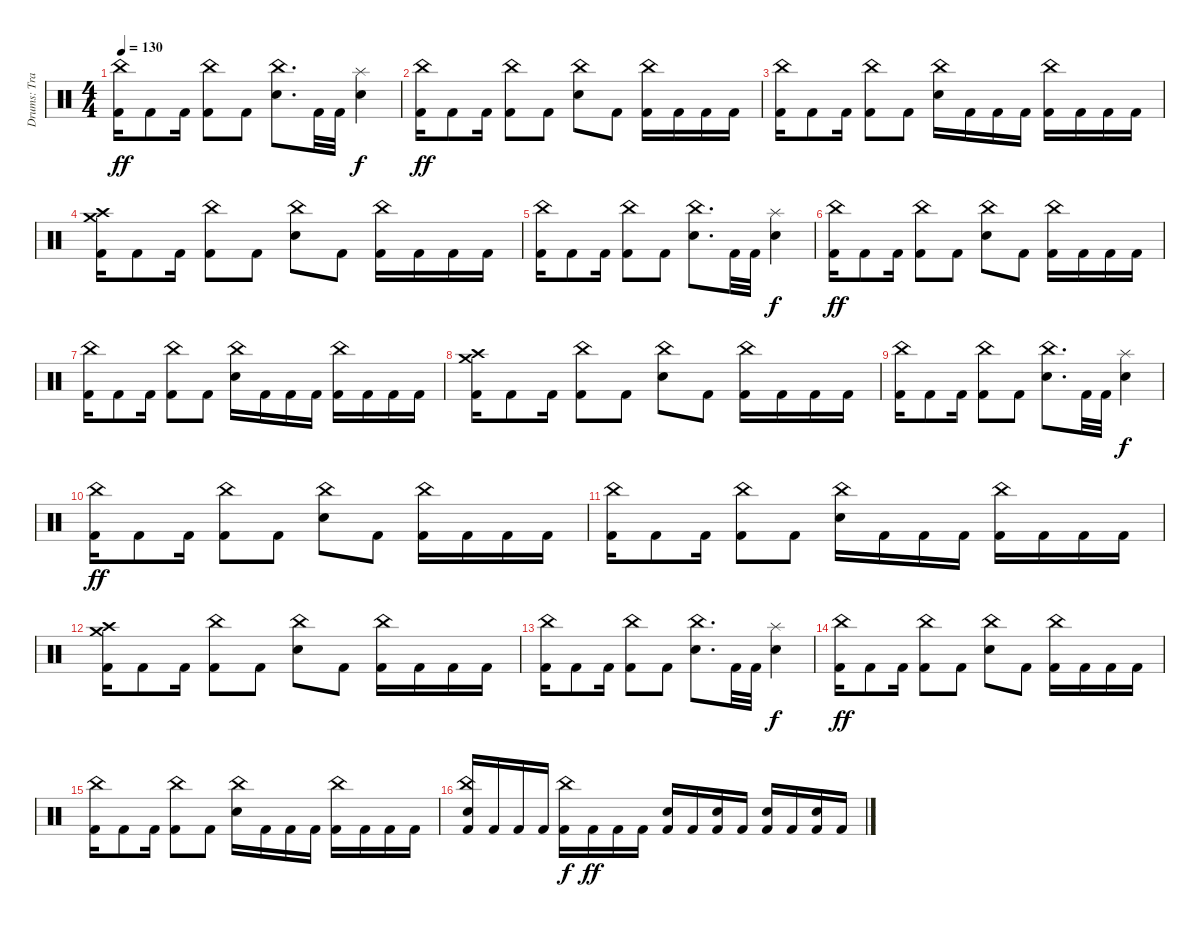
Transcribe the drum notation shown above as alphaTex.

\track ("Drums: Travis Clarke" "Drums: Tra") {instrument percussion}
\staff {score}
\articulation defaults
\ts (4 4)
\tempo 130
\clef neutral
\ks c
("Kick (hit) 2" "China (hit)").16{dy ff} "Kick (hit) 2".8 "Kick (hit) 2".16 ("Kick (hit) 2" "China (hit)").8 "Kick (hit) 2".8 ("Snare (hit) 2" "China (hit)").8{d} "Kick (hit) 2".32 "Kick (hit) 2".32 ("Snare (hit) 2" "Splash (hit)").4{dy f} |
("Kick (hit) 2" "China (hit)").16{dy ff} "Kick (hit) 2".8 "Kick (hit) 2".16 ("Kick (hit) 2" "China (hit)").8 "Kick (hit) 2".8 ("Snare (hit) 2" "China (hit)").8 "Kick (hit) 2".8 ("Kick (hit) 2" "China (hit)").16 "Kick (hit) 2".16 "Kick (hit) 2".16 "Kick (hit) 2".16 |
("Kick (hit) 2" "China (hit)").16 "Kick (hit) 2".8 "Kick (hit) 2".16 ("Kick (hit) 2" "China (hit)").8 "Kick (hit) 2".8 ("Snare (hit) 2" "China (hit)").16 "Kick (hit) 2".16 "Kick (hit) 2".16 "Kick (hit) 2".16 ("Kick (hit) 2" "China (hit)").16 "Kick (hit) 2".16 "Kick (hit) 2".16 "Kick (hit) 2".16 |
("Kick (hit) 2" "Crash high (hit)" "Crash medium (hit)").16 "Kick (hit) 2".8 "Kick (hit) 2".16 ("Kick (hit) 2" "China (hit)").8 "Kick (hit) 2".8 ("Snare (hit) 2" "China (hit)").8 "Kick (hit) 2".8 ("Kick (hit) 2" "China (hit)").16 "Kick (hit) 2".16 "Kick (hit) 2".16 "Kick (hit) 2".16 |
("Kick (hit) 2" "China (hit)").16 "Kick (hit) 2".8 "Kick (hit) 2".16 ("Kick (hit) 2" "China (hit)").8 "Kick (hit) 2".8 ("Snare (hit) 2" "China (hit)").8{d} "Kick (hit) 2".32 "Kick (hit) 2".32 ("Snare (hit) 2" "Splash (hit)").4{dy f} |
("Kick (hit) 2" "China (hit)").16{dy ff} "Kick (hit) 2".8 "Kick (hit) 2".16 ("Kick (hit) 2" "China (hit)").8 "Kick (hit) 2".8 ("Snare (hit) 2" "China (hit)").8 "Kick (hit) 2".8 ("Kick (hit) 2" "China (hit)").16 "Kick (hit) 2".16 "Kick (hit) 2".16 "Kick (hit) 2".16 |
("Kick (hit) 2" "China (hit)").16 "Kick (hit) 2".8 "Kick (hit) 2".16 ("Kick (hit) 2" "China (hit)").8 "Kick (hit) 2".8 ("Snare (hit) 2" "China (hit)").16 "Kick (hit) 2".16 "Kick (hit) 2".16 "Kick (hit) 2".16 ("Kick (hit) 2" "China (hit)").16 "Kick (hit) 2".16 "Kick (hit) 2".16 "Kick (hit) 2".16 |
("Kick (hit) 2" "Crash high (hit)" "Crash medium (hit)").16 "Kick (hit) 2".8 "Kick (hit) 2".16 ("Kick (hit) 2" "China (hit)").8 "Kick (hit) 2".8 ("Snare (hit) 2" "China (hit)").8 "Kick (hit) 2".8 ("Kick (hit) 2" "China (hit)").16 "Kick (hit) 2".16 "Kick (hit) 2".16 "Kick (hit) 2".16 |
("Kick (hit) 2" "China (hit)").16 "Kick (hit) 2".8 "Kick (hit) 2".16 ("Kick (hit) 2" "China (hit)").8 "Kick (hit) 2".8 ("Snare (hit) 2" "China (hit)").8{d} "Kick (hit) 2".32 "Kick (hit) 2".32 ("Snare (hit) 2" "Splash (hit)").4{dy f} |
("Kick (hit) 2" "China (hit)").16{dy ff} "Kick (hit) 2".8 "Kick (hit) 2".16 ("Kick (hit) 2" "China (hit)").8 "Kick (hit) 2".8 ("Snare (hit) 2" "China (hit)").8 "Kick (hit) 2".8 ("Kick (hit) 2" "China (hit)").16 "Kick (hit) 2".16 "Kick (hit) 2".16 "Kick (hit) 2".16 |
("Kick (hit) 2" "China (hit)").16 "Kick (hit) 2".8 "Kick (hit) 2".16 ("Kick (hit) 2" "China (hit)").8 "Kick (hit) 2".8 ("Snare (hit) 2" "China (hit)").16 "Kick (hit) 2".16 "Kick (hit) 2".16 "Kick (hit) 2".16 ("Kick (hit) 2" "China (hit)").16 "Kick (hit) 2".16 "Kick (hit) 2".16 "Kick (hit) 2".16 |
("Kick (hit) 2" "Crash high (hit)" "Crash medium (hit)").16 "Kick (hit) 2".8 "Kick (hit) 2".16 ("Kick (hit) 2" "China (hit)").8 "Kick (hit) 2".8 ("Snare (hit) 2" "China (hit)").8 "Kick (hit) 2".8 ("Kick (hit) 2" "China (hit)").16 "Kick (hit) 2".16 "Kick (hit) 2".16 "Kick (hit) 2".16 |
("Kick (hit) 2" "China (hit)").16 "Kick (hit) 2".8 "Kick (hit) 2".16 ("Kick (hit) 2" "China (hit)").8 "Kick (hit) 2".8 ("Snare (hit) 2" "China (hit)").8{d} "Kick (hit) 2".32 "Kick (hit) 2".32 ("Snare (hit) 2" "Splash (hit)").4{dy f} |
("Kick (hit) 2" "China (hit)").16{dy ff} "Kick (hit) 2".8 "Kick (hit) 2".16 ("Kick (hit) 2" "China (hit)").8 "Kick (hit) 2".8 ("Snare (hit) 2" "China (hit)").8 "Kick (hit) 2".8 ("Kick (hit) 2" "China (hit)").16 "Kick (hit) 2".16 "Kick (hit) 2".16 "Kick (hit) 2".16 |
("Kick (hit) 2" "China (hit)").16 "Kick (hit) 2".8 "Kick (hit) 2".16 ("Kick (hit) 2" "China (hit)").8 "Kick (hit) 2".8 ("Snare (hit) 2" "China (hit)").16 "Kick (hit) 2".16 "Kick (hit) 2".16 "Kick (hit) 2".16 ("Kick (hit) 2" "China (hit)").16 "Kick (hit) 2".16 "Kick (hit) 2".16 "Kick (hit) 2".16 |
("Kick (hit) 2" "Snare (hit) 2" "China (hit)").16 "Kick (hit) 2".16 "Kick (hit) 2".16 "Kick (hit) 2".16 ("Kick (hit) 2" "China (hit)").16{dy f} "Kick (hit) 2".16{dy ff} "Kick (hit) 2".16 "Kick (hit) 2".16 ("Kick (hit) 2" "Snare (hit) 2").16 "Kick (hit) 2".16 ("Kick (hit) 2" "Snare (hit) 2").16 "Kick (hit) 2".16 ("Kick (hit) 2" "Snare (hit) 2").16 "Kick (hit) 2".16 ("Kick (hit) 2" "Snare (hit) 2").16 "Kick (hit) 2".16
